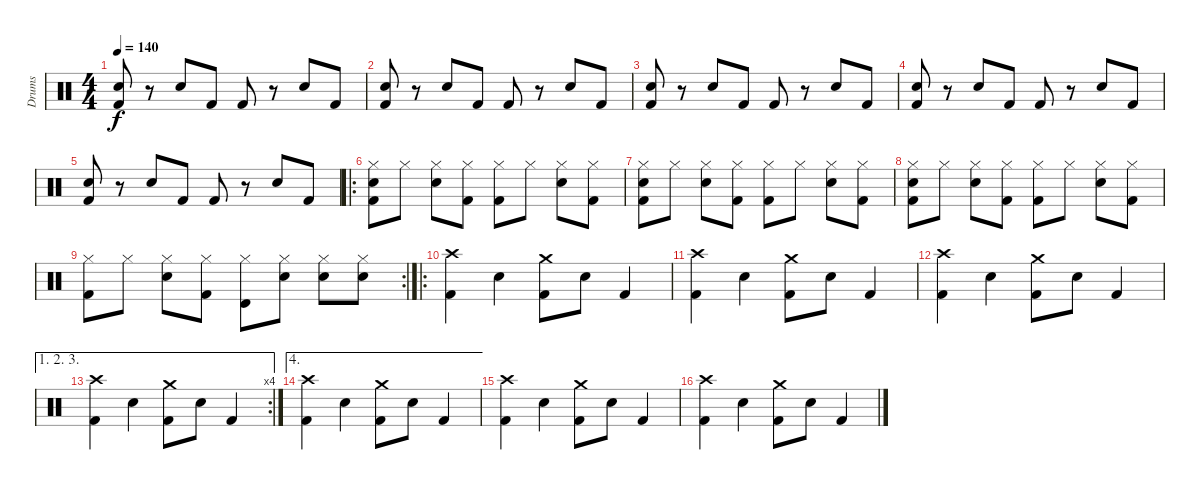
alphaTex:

\track ("Drums" "Drums") {instrument percussion}
\staff {score}
\articulation defaults
\ts (4 4)
\tempo 140
\clef neutral
\ks c
("Snare (hit) 2" "Kick (hit) 2").8{dy f} r.8 "Snare (hit) 2".8 "Kick (hit) 2".8 "Kick (hit) 2".8 r.8 "Snare (hit) 2".8 "Kick (hit) 2".8 |
("Snare (hit) 2" "Kick (hit) 2").8 r.8 "Snare (hit) 2".8 "Kick (hit) 2".8 "Kick (hit) 2".8 r.8 "Snare (hit) 2".8 "Kick (hit) 2".8 |
("Snare (hit) 2" "Kick (hit) 2").8 r.8 "Snare (hit) 2".8 "Kick (hit) 2".8 "Kick (hit) 2".8 r.8 "Snare (hit) 2".8 "Kick (hit) 2".8 |
("Snare (hit) 2" "Kick (hit) 2").8 r.8 "Snare (hit) 2".8 "Kick (hit) 2".8 "Kick (hit) 2".8 r.8 "Snare (hit) 2".8 "Kick (hit) 2".8 |
("Snare (hit) 2" "Kick (hit) 2").8 r.8 "Snare (hit) 2".8 "Kick (hit) 2".8 "Kick (hit) 2".8 r.8 "Snare (hit) 2".8 "Kick (hit) 2".8 |
\ro
("Hi-Hat (closed)" "Snare (hit) 2" "Kick (hit) 2").8 "Hi-Hat (closed)".8 ("Hi-Hat (closed)" "Snare (hit) 2").8 ("Hi-Hat (closed)" "Kick (hit) 2").8 ("Hi-Hat (closed)" "Kick (hit) 2").8 "Hi-Hat (closed)".8 ("Hi-Hat (closed)" "Snare (hit) 2").8 ("Hi-Hat (closed)" "Kick (hit) 2").8 |
("Hi-Hat (closed)" "Snare (hit) 2" "Kick (hit) 2").8 "Hi-Hat (closed)".8 ("Hi-Hat (closed)" "Snare (hit) 2").8 ("Hi-Hat (closed)" "Kick (hit) 2").8 ("Hi-Hat (closed)" "Kick (hit) 2").8 "Hi-Hat (closed)".8 ("Hi-Hat (closed)" "Snare (hit) 2").8 ("Hi-Hat (closed)" "Kick (hit) 2").8 |
("Hi-Hat (closed)" "Snare (hit) 2" "Kick (hit) 2").8 "Hi-Hat (closed)".8 ("Hi-Hat (closed)" "Snare (hit) 2").8 ("Hi-Hat (closed)" "Kick (hit) 2").8 ("Hi-Hat (closed)" "Kick (hit) 2").8 "Hi-Hat (closed)".8 ("Hi-Hat (closed)" "Snare (hit) 2").8 ("Hi-Hat (closed)" "Kick (hit) 2").8 |
\rc 2
("Hi-Hat (closed)" "Kick (hit) 2").8 "Hi-Hat (closed)".8 ("Hi-Hat (closed)" "Snare (hit) 2").8 ("Hi-Hat (closed)" "Kick (hit) 2").8 ("Hi-Hat (closed)" "Timbale high (hit)").8 ("Hi-Hat (closed)" "Snare (hit) 2").8 ("Hi-Hat (closed)" "Snare (hit) 2").8 ("Hi-Hat (closed)" "Snare (hit) 2").8 |
\ro
("Crash high (hit)" "Kick (hit) 2").4 "Snare (hit) 2".4 ("Crash medium (hit)" "Kick (hit) 2").8 "Snare (hit) 2".8 "Kick (hit) 2".4 |
("Crash high (hit)" "Kick (hit) 2").4 "Snare (hit) 2".4 ("Crash medium (hit)" "Kick (hit) 2").8 "Snare (hit) 2".8 "Kick (hit) 2".4 |
("Crash high (hit)" "Kick (hit) 2").4 "Snare (hit) 2".4 ("Crash medium (hit)" "Kick (hit) 2").8 "Snare (hit) 2".8 "Kick (hit) 2".4 |
\ae (1 2 3)
\rc 4
("Crash high (hit)" "Kick (hit) 2").4 "Snare (hit) 2".4 ("Crash medium (hit)" "Kick (hit) 2").8 "Snare (hit) 2".8 "Kick (hit) 2".4 |
\ae 4
("Crash high (hit)" "Kick (hit) 2").4 "Snare (hit) 2".4 ("Crash medium (hit)" "Kick (hit) 2").8 "Snare (hit) 2".8 "Kick (hit) 2".4 |
("Crash high (hit)" "Kick (hit) 2").4 "Snare (hit) 2".4 ("Crash medium (hit)" "Kick (hit) 2").8 "Snare (hit) 2".8 "Kick (hit) 2".4 |
("Crash high (hit)" "Kick (hit) 2").4 "Snare (hit) 2".4 ("Crash medium (hit)" "Kick (hit) 2").8 "Snare (hit) 2".8 "Kick (hit) 2".4
